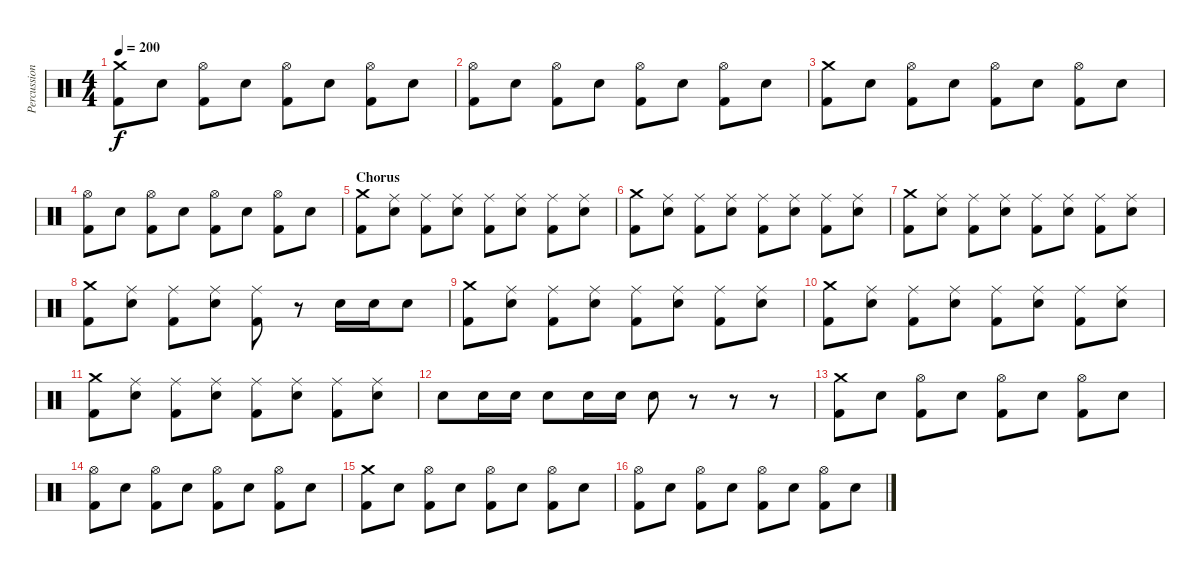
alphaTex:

\track ("Percussion" "Percussion") {instrument percussion}
\staff {score}
\articulation defaults
\ts (4 4)
\tempo 200
\clef neutral
\ks c
("Crash medium (hit)" "Kick (hit) 2").8{dy f} "Snare (hit) 2".8 ("Hi-Hat (open)" "Kick (hit) 2").8 "Snare (hit) 2".8 ("Hi-Hat (open)" "Kick (hit) 2").8 "Snare (hit) 2".8 ("Hi-Hat (open)" "Kick (hit) 2").8 "Snare (hit) 2".8 |
("Hi-Hat (open)" "Kick (hit) 2").8 "Snare (hit) 2".8 ("Hi-Hat (open)" "Kick (hit) 2").8 "Snare (hit) 2".8 ("Hi-Hat (open)" "Kick (hit) 2").8 "Snare (hit) 2".8 ("Hi-Hat (open)" "Kick (hit) 2").8 "Snare (hit) 2".8 |
("Crash medium (hit)" "Kick (hit) 2").8 "Snare (hit) 2".8 ("Hi-Hat (open)" "Kick (hit) 2").8 "Snare (hit) 2".8 ("Hi-Hat (open)" "Kick (hit) 2").8 "Snare (hit) 2".8 ("Hi-Hat (open)" "Kick (hit) 2").8 "Snare (hit) 2".8 |
("Hi-Hat (open)" "Kick (hit) 2").8 "Snare (hit) 2".8 ("Hi-Hat (open)" "Kick (hit) 2").8 "Snare (hit) 2".8 ("Hi-Hat (open)" "Kick (hit) 2").8 "Snare (hit) 2".8 ("Hi-Hat (open)" "Kick (hit) 2").8 "Snare (hit) 2".8 |
\section ("" "Chorus")
("Crash medium (hit)" "Kick (hit) 2").8 ("Ride (middle)" "Snare (hit) 2").8 ("Ride (middle)" "Kick (hit) 2").8 ("Ride (middle)" "Snare (hit) 2").8 ("Ride (middle)" "Kick (hit) 2").8 ("Ride (middle)" "Snare (hit) 2").8 ("Ride (middle)" "Kick (hit) 2").8 ("Ride (middle)" "Snare (hit) 2").8 |
("Crash medium (hit)" "Kick (hit) 2").8 ("Ride (middle)" "Snare (hit) 2").8 ("Ride (middle)" "Kick (hit) 2").8 ("Ride (middle)" "Snare (hit) 2").8 ("Ride (middle)" "Kick (hit) 2").8 ("Ride (middle)" "Snare (hit) 2").8 ("Ride (middle)" "Kick (hit) 2").8 ("Ride (middle)" "Snare (hit) 2").8 |
("Crash medium (hit)" "Kick (hit) 2").8 ("Ride (middle)" "Snare (hit) 2").8 ("Ride (middle)" "Kick (hit) 2").8 ("Ride (middle)" "Snare (hit) 2").8 ("Ride (middle)" "Kick (hit) 2").8 ("Ride (middle)" "Snare (hit) 2").8 ("Ride (middle)" "Kick (hit) 2").8 ("Ride (middle)" "Snare (hit) 2").8 |
("Crash medium (hit)" "Kick (hit) 2").8 ("Ride (middle)" "Snare (hit) 2").8 ("Ride (middle)" "Kick (hit) 2").8 ("Ride (middle)" "Snare (hit) 2").8 ("Ride (middle)" "Kick (hit) 2").8 r.8 "Snare (hit) 2".16 "Snare (hit) 2".16 "Snare (hit) 2".8 |
("Crash medium (hit)" "Kick (hit) 2").8 ("Ride (middle)" "Snare (hit) 2").8 ("Ride (middle)" "Kick (hit) 2").8 ("Ride (middle)" "Snare (hit) 2").8 ("Ride (middle)" "Kick (hit) 2").8 ("Ride (middle)" "Snare (hit) 2").8 ("Ride (middle)" "Kick (hit) 2").8 ("Ride (middle)" "Snare (hit) 2").8 |
("Crash medium (hit)" "Kick (hit) 2").8 ("Ride (middle)" "Snare (hit) 2").8 ("Ride (middle)" "Kick (hit) 2").8 ("Ride (middle)" "Snare (hit) 2").8 ("Ride (middle)" "Kick (hit) 2").8 ("Ride (middle)" "Snare (hit) 2").8 ("Ride (middle)" "Kick (hit) 2").8 ("Ride (middle)" "Snare (hit) 2").8 |
("Crash medium (hit)" "Kick (hit) 2").8 ("Ride (middle)" "Snare (hit) 2").8 ("Ride (middle)" "Kick (hit) 2").8 ("Ride (middle)" "Snare (hit) 2").8 ("Ride (middle)" "Kick (hit) 2").8 ("Ride (middle)" "Snare (hit) 2").8 ("Ride (middle)" "Kick (hit) 2").8 ("Ride (middle)" "Snare (hit) 2").8 |
"Snare (hit) 2".8 "Snare (hit) 2".16 "Snare (hit) 2".16 "Snare (hit) 2".8 "Snare (hit) 2".16 "Snare (hit) 2".16 "Snare (hit) 2".8 r.8 r.8 r.8 |
("Crash medium (hit)" "Kick (hit) 2").8 "Snare (hit) 2".8 ("Hi-Hat (open)" "Kick (hit) 2").8 "Snare (hit) 2".8 ("Hi-Hat (open)" "Kick (hit) 2").8 "Snare (hit) 2".8 ("Hi-Hat (open)" "Kick (hit) 2").8 "Snare (hit) 2".8 |
("Hi-Hat (open)" "Kick (hit) 2").8 "Snare (hit) 2".8 ("Hi-Hat (open)" "Kick (hit) 2").8 "Snare (hit) 2".8 ("Hi-Hat (open)" "Kick (hit) 2").8 "Snare (hit) 2".8 ("Hi-Hat (open)" "Kick (hit) 2").8 "Snare (hit) 2".8 |
("Crash medium (hit)" "Kick (hit) 2").8 "Snare (hit) 2".8 ("Hi-Hat (open)" "Kick (hit) 2").8 "Snare (hit) 2".8 ("Hi-Hat (open)" "Kick (hit) 2").8 "Snare (hit) 2".8 ("Hi-Hat (open)" "Kick (hit) 2").8 "Snare (hit) 2".8 |
("Hi-Hat (open)" "Kick (hit) 2").8 "Snare (hit) 2".8 ("Hi-Hat (open)" "Kick (hit) 2").8 "Snare (hit) 2".8 ("Hi-Hat (open)" "Kick (hit) 2").8 "Snare (hit) 2".8 ("Hi-Hat (open)" "Kick (hit) 2").8 "Snare (hit) 2".8
